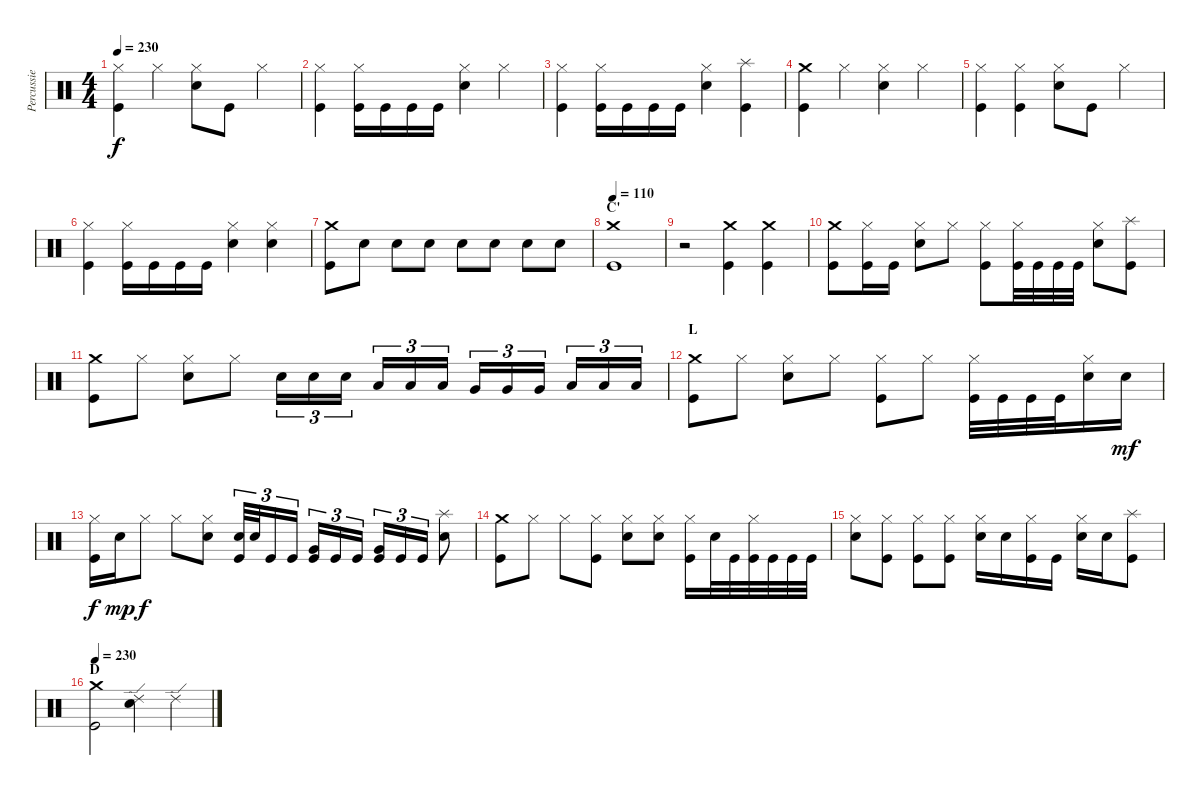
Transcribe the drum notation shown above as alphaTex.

\track ("Percussie" "Percussie") {instrument percussion}
\staff {score}
\articulation defaults
\ts (4 4)
\tempo 230
\clef neutral
\ks c
("Hi-Hat (closed)" "Kick (hit)").4{dy f} "Hi-Hat (closed)".4 ("Hi-Hat (closed)" "Electric Snare (hit)").8 "Kick (hit)".8 "Hi-Hat (closed)".4 |
("Hi-Hat (closed)" "Kick (hit)").4 ("Hi-Hat (closed)" "Kick (hit)").16 "Kick (hit)".16 "Kick (hit)".16 "Kick (hit)".16 ("Hi-Hat (closed)" "Electric Snare (hit)").4 "Hi-Hat (closed)".4 |
("Hi-Hat (closed)" "Kick (hit)").4 ("Hi-Hat (closed)" "Kick (hit)").16 "Kick (hit)".16 "Kick (hit)".16 "Kick (hit)".16 ("Hi-Hat (closed)" "Electric Snare (hit)").4 ("Splash (hit)" "Kick (hit)").4 |
("Crash medium (hit)" "Kick (hit)").4 "Hi-Hat (closed)".4 ("Hi-Hat (closed)" "Electric Snare (hit)").4 "Hi-Hat (closed)".4 |
("Hi-Hat (closed)" "Kick (hit)").4 ("Hi-Hat (closed)" "Kick (hit)").4 ("Hi-Hat (closed)" "Electric Snare (hit)").8 "Kick (hit)".8 "Hi-Hat (closed)".4 |
("Hi-Hat (closed)" "Kick (hit)").4 ("Hi-Hat (closed)" "Kick (hit)").16 "Kick (hit)".16 "Kick (hit)".16 "Kick (hit)".16 ("Hi-Hat (closed)" "Electric Snare (hit)").4 ("Hi-Hat (closed)" "Electric Snare (hit)").4 |
("Crash medium (hit)" "Kick (hit)").8 "Electric Snare (hit)".8 "Electric Snare (hit)".8 "Electric Snare (hit)".8 "Electric Snare (hit)".8 "Electric Snare (hit)".8 "Electric Snare (hit)".8 "Electric Snare (hit)".8 |
\section ("" "C'")
\tempo 110
("Crash medium (hit)" "Kick (hit)").1 |
r.2 ("Crash medium (hit)" "Kick (hit)").4 ("Crash medium (hit)" "Kick (hit)").4 |
("Crash medium (hit)" "Kick (hit)").8 ("Hi-Hat (closed)" "Kick (hit)").16 "Kick (hit)".16 ("Hi-Hat (closed)" "Electric Snare (hit)").8 "Hi-Hat (closed)".8 ("Hi-Hat (closed)" "Kick (hit)").8 ("Hi-Hat (closed)" "Kick (hit)").32 "Kick (hit)".32 "Kick (hit)".32 "Kick (hit)".32 ("Hi-Hat (closed)" "Electric Snare (hit)").8 ("Splash (hit)" "Kick (hit)").8 |
("Crash medium (hit)" "Kick (hit)").8 "Hi-Hat (closed)".8 ("Hi-Hat (closed)" "Electric Snare (hit)").8 "Hi-Hat (closed)".8 "Electric Snare (hit)".16{tu (3 2)} "Electric Snare (hit)".16{tu (3 2)} "Electric Snare (hit)".16{tu (3 2)} "Low Tom (hit)".16{tu (3 2)} "Low Tom (hit)".16{tu (3 2)} "Low Tom (hit)".16{tu (3 2)} "Very Low Tom (hit)".16{tu (3 2)} "Very Low Tom (hit)".16{tu (3 2)} "Very Low Tom (hit)".16{tu (3 2)} "Low Floor Tom (hit)".16{tu (3 2)} "Low Floor Tom (hit)".16{tu (3 2)} "Low Floor Tom (hit)".16{tu (3 2)} |
\section ("" "L")
("Crash medium (hit)" "Kick (hit)").8 "Hi-Hat (closed)".8 ("Hi-Hat (closed)" "Electric Snare (hit)").8 "Hi-Hat (closed)".8 ("Hi-Hat (closed)" "Kick (hit)").8 "Hi-Hat (closed)".8 ("Hi-Hat (closed)" "Kick (hit)").32 "Kick (hit)".32 "Kick (hit)".32 "Kick (hit)".32 ("Hi-Hat (closed)" "Electric Snare (hit)").16 "Electric Snare (hit)".16{dy mf} |
("Hi-Hat (closed)" "Kick (hit)").16{dy f} "Electric Snare (hit)".16{dy mp} "Hi-Hat (closed)".8{dy f} "Hi-Hat (closed)".8 ("Hi-Hat (closed)" "Electric Snare (hit)").8 ("Electric Snare (hit)" "Kick (hit)").32{tu (3 2)} "Electric Snare (hit)".32{tu (3 2)} "Kick (hit)".16{tu (3 2)} "Kick (hit)".16{tu (3 2)} ("Very Low Tom (hit)" "Kick (hit)").16{tu (3 2)} "Kick (hit)".16{tu (3 2)} "Kick (hit)".16{tu (3 2)} ("Very Low Tom (hit)" "Kick (hit)").16{tu (3 2)} "Kick (hit)".16{tu (3 2)} "Kick (hit)".16{tu (3 2)} ("Splash (hit)" "Electric Snare (hit)").8 |
("Crash medium (hit)" "Kick (hit)").8 "Hi-Hat (closed)".8 "Hi-Hat (closed)".8 ("Hi-Hat (closed)" "Kick (hit)").8 ("Hi-Hat (closed)" "Electric Snare (hit)").8 ("Hi-Hat (closed)" "Electric Snare (hit)").8 ("Hi-Hat (closed)" "Kick (hit)").16 "Electric Snare (hit)".32 "Kick (hit)".32 ("Hi-Hat (closed)" "Kick (hit)").32 "Kick (hit)".32 "Kick (hit)".32 "Kick (hit)".32 |
("Hi-Hat (closed)" "Electric Snare (hit)").8 ("Hi-Hat (closed)" "Kick (hit)").8 ("Hi-Hat (closed)" "Kick (hit)").8 ("Hi-Hat (closed)" "Kick (hit)").8 ("Hi-Hat (closed)" "Electric Snare (hit)").16 "Electric Snare (hit)".16 ("Hi-Hat (closed)" "Kick (hit)").16 "Kick (hit)".16 ("Hi-Hat (closed)" "Electric Snare (hit)").16 "Electric Snare (hit)".16 ("Splash (hit)" "Kick (hit)").8 |
\section ("" "D")
\tempo 230
("Crash medium (hit)" "Kick (hit)").2 ("Ride (edge) 2" "Electric Snare (hit)").4 "Ride (edge) 2".4
